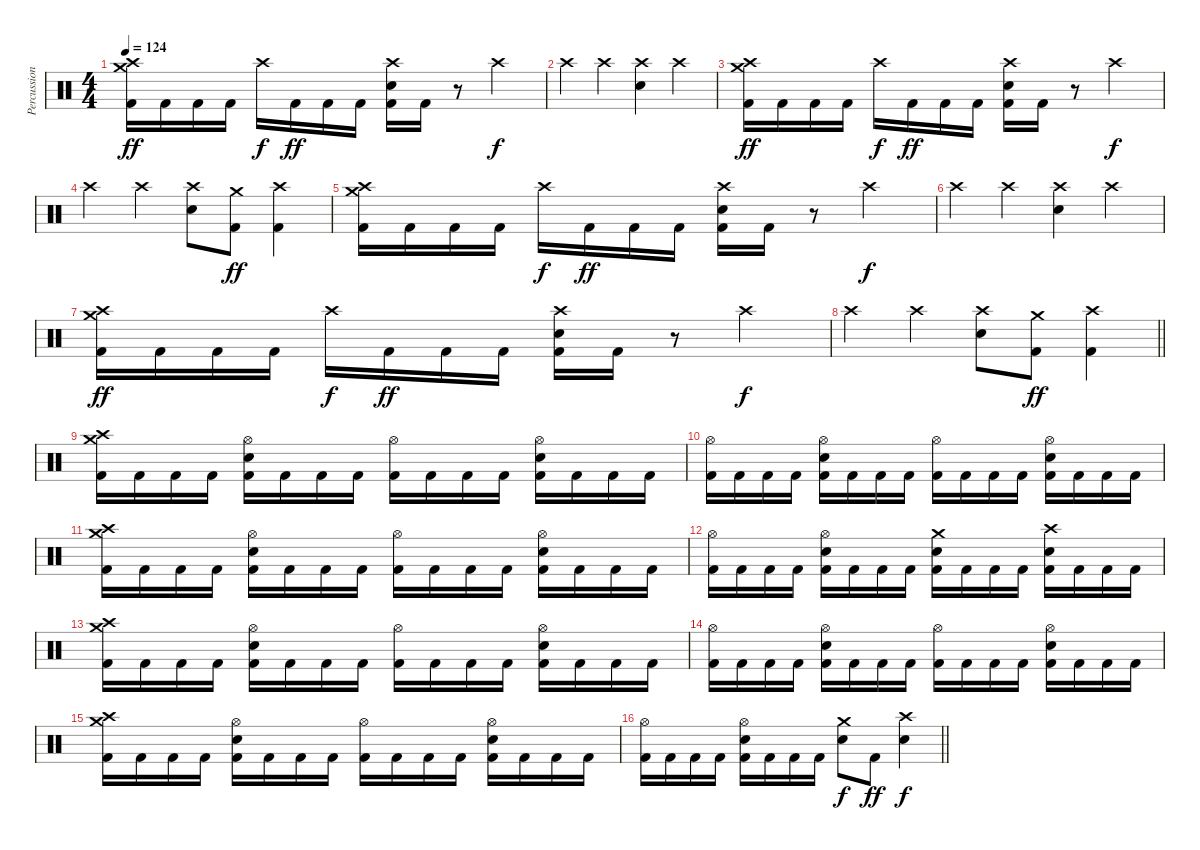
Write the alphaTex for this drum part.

\track ("Percussion" "Percussion") {instrument percussion}
\staff {score}
\articulation defaults
\ts (4 4)
\tempo 124
\clef neutral
\ks c
("Crash medium (hit)" "Crash high (hit)" "Kick (hit) 2").16{dy ff} "Kick (hit) 2".16 "Kick (hit) 2".16 "Kick (hit) 2".16 "Crash high (hit)".16{dy f} "Kick (hit) 2".16{dy ff} "Kick (hit) 2".16 "Kick (hit) 2".16 ("Crash high (hit)" "Electric Snare (hit)" "Kick (hit) 2").16 "Kick (hit) 2".16 r.8 "Crash high (hit)".4{dy f} |
"Crash high (hit)".4 "Crash high (hit)".4 ("Crash high (hit)" "Electric Snare (hit)").4 "Crash high (hit)".4 |
("Crash medium (hit)" "Crash high (hit)" "Kick (hit) 2").16{dy ff} "Kick (hit) 2".16 "Kick (hit) 2".16 "Kick (hit) 2".16 "Crash high (hit)".16{dy f} "Kick (hit) 2".16{dy ff} "Kick (hit) 2".16 "Kick (hit) 2".16 ("Crash high (hit)" "Electric Snare (hit)" "Kick (hit) 2").16 "Kick (hit) 2".16 r.8 "Crash high (hit)".4{dy f} |
"Crash high (hit)".4 "Crash high (hit)".4 ("Crash high (hit)" "Electric Snare (hit)").8 ("Crash medium (hit)" "Kick (hit) 2").8{dy ff} ("Crash high (hit)" "Kick (hit) 2").4 |
("Crash medium (hit)" "Crash high (hit)" "Kick (hit) 2").16 "Kick (hit) 2".16 "Kick (hit) 2".16 "Kick (hit) 2".16 "Crash high (hit)".16{dy f} "Kick (hit) 2".16{dy ff} "Kick (hit) 2".16 "Kick (hit) 2".16 ("Crash high (hit)" "Electric Snare (hit)" "Kick (hit) 2").16 "Kick (hit) 2".16 r.8 "Crash high (hit)".4{dy f} |
"Crash high (hit)".4 "Crash high (hit)".4 ("Crash high (hit)" "Electric Snare (hit)").4 "Crash high (hit)".4 |
("Crash medium (hit)" "Crash high (hit)" "Kick (hit) 2").16{dy ff} "Kick (hit) 2".16 "Kick (hit) 2".16 "Kick (hit) 2".16 "Crash high (hit)".16{dy f} "Kick (hit) 2".16{dy ff} "Kick (hit) 2".16 "Kick (hit) 2".16 ("Crash high (hit)" "Electric Snare (hit)" "Kick (hit) 2").16 "Kick (hit) 2".16 r.8 "Crash high (hit)".4{dy f} |
\barLineRight lightlight "Crash high (hit)".4 "Crash high (hit)".4
("Crash high (hit)" "Electric Snare (hit)").8 ("Crash medium (hit)" "Kick (hit) 2").8{dy ff} ("Crash high (hit)" "Kick (hit) 2").4 |
("Crash medium (hit)" "Crash high (hit)" "Kick (hit) 2").16 "Kick (hit) 2".16 "Kick (hit) 2".16 "Kick (hit) 2".16 ("Hi-Hat (open)" "Electric Snare (hit)" "Kick (hit) 2").16 "Kick (hit) 2".16 "Kick (hit) 2".16 "Kick (hit) 2".16 ("Hi-Hat (open)" "Kick (hit) 2").16 "Kick (hit) 2".16 "Kick (hit) 2".16 "Kick (hit) 2".16 ("Hi-Hat (open)" "Electric Snare (hit)" "Kick (hit) 2").16 "Kick (hit) 2".16 "Kick (hit) 2".16 "Kick (hit) 2".16 |
("Hi-Hat (open)" "Kick (hit) 2").16 "Kick (hit) 2".16 "Kick (hit) 2".16 "Kick (hit) 2".16 ("Hi-Hat (open)" "Electric Snare (hit)" "Kick (hit) 2").16 "Kick (hit) 2".16 "Kick (hit) 2".16 "Kick (hit) 2".16 ("Hi-Hat (open)" "Kick (hit) 2").16 "Kick (hit) 2".16 "Kick (hit) 2".16 "Kick (hit) 2".16 ("Hi-Hat (open)" "Electric Snare (hit)" "Kick (hit) 2").16 "Kick (hit) 2".16 "Kick (hit) 2".16 "Kick (hit) 2".16 |
("Crash medium (hit)" "Crash high (hit)" "Kick (hit) 2").16 "Kick (hit) 2".16 "Kick (hit) 2".16 "Kick (hit) 2".16 ("Hi-Hat (open)" "Electric Snare (hit)" "Kick (hit) 2").16 "Kick (hit) 2".16 "Kick (hit) 2".16 "Kick (hit) 2".16 ("Hi-Hat (open)" "Kick (hit) 2").16 "Kick (hit) 2".16 "Kick (hit) 2".16 "Kick (hit) 2".16 ("Hi-Hat (open)" "Electric Snare (hit)" "Kick (hit) 2").16 "Kick (hit) 2".16 "Kick (hit) 2".16 "Kick (hit) 2".16 |
("Hi-Hat (open)" "Kick (hit) 2").16 "Kick (hit) 2".16 "Kick (hit) 2".16 "Kick (hit) 2".16 ("Hi-Hat (open)" "Electric Snare (hit)" "Kick (hit) 2").16 "Kick (hit) 2".16 "Kick (hit) 2".16 "Kick (hit) 2".16 ("Crash medium (hit)" "Electric Snare (hit)" "Kick (hit) 2").16 "Kick (hit) 2".16 "Kick (hit) 2".16 "Kick (hit) 2".16 ("Crash high (hit)" "Electric Snare (hit)" "Kick (hit) 2").16 "Kick (hit) 2".16 "Kick (hit) 2".16 "Kick (hit) 2".16 |
("Crash medium (hit)" "Crash high (hit)" "Kick (hit) 2").16 "Kick (hit) 2".16 "Kick (hit) 2".16 "Kick (hit) 2".16 ("Hi-Hat (open)" "Electric Snare (hit)" "Kick (hit) 2").16 "Kick (hit) 2".16 "Kick (hit) 2".16 "Kick (hit) 2".16 ("Hi-Hat (open)" "Kick (hit) 2").16 "Kick (hit) 2".16 "Kick (hit) 2".16 "Kick (hit) 2".16 ("Hi-Hat (open)" "Electric Snare (hit)" "Kick (hit) 2").16 "Kick (hit) 2".16 "Kick (hit) 2".16 "Kick (hit) 2".16 |
("Hi-Hat (open)" "Kick (hit) 2").16 "Kick (hit) 2".16 "Kick (hit) 2".16 "Kick (hit) 2".16 ("Hi-Hat (open)" "Electric Snare (hit)" "Kick (hit) 2").16 "Kick (hit) 2".16 "Kick (hit) 2".16 "Kick (hit) 2".16 ("Hi-Hat (open)" "Kick (hit) 2").16 "Kick (hit) 2".16 "Kick (hit) 2".16 "Kick (hit) 2".16 ("Hi-Hat (open)" "Electric Snare (hit)" "Kick (hit) 2").16 "Kick (hit) 2".16 "Kick (hit) 2".16 "Kick (hit) 2".16 |
("Crash medium (hit)" "Crash high (hit)" "Kick (hit) 2").16 "Kick (hit) 2".16 "Kick (hit) 2".16 "Kick (hit) 2".16 ("Hi-Hat (open)" "Electric Snare (hit)" "Kick (hit) 2").16 "Kick (hit) 2".16 "Kick (hit) 2".16 "Kick (hit) 2".16 ("Hi-Hat (open)" "Kick (hit) 2").16 "Kick (hit) 2".16 "Kick (hit) 2".16 "Kick (hit) 2".16 ("Hi-Hat (open)" "Electric Snare (hit)" "Kick (hit) 2").16 "Kick (hit) 2".16 "Kick (hit) 2".16 "Kick (hit) 2".16 |
\barLineRight lightlight
("Hi-Hat (open)" "Kick (hit) 2").16 "Kick (hit) 2".16 "Kick (hit) 2".16 "Kick (hit) 2".16 ("Hi-Hat (open)" "Electric Snare (hit)" "Kick (hit) 2").16 "Kick (hit) 2".16 "Kick (hit) 2".16 "Kick (hit) 2".16 ("Crash medium (hit)" "Electric Snare (hit)").8{dy f} "Kick (hit) 2".8{dy ff} ("Crash high (hit)" "Electric Snare (hit)").4{dy f}
